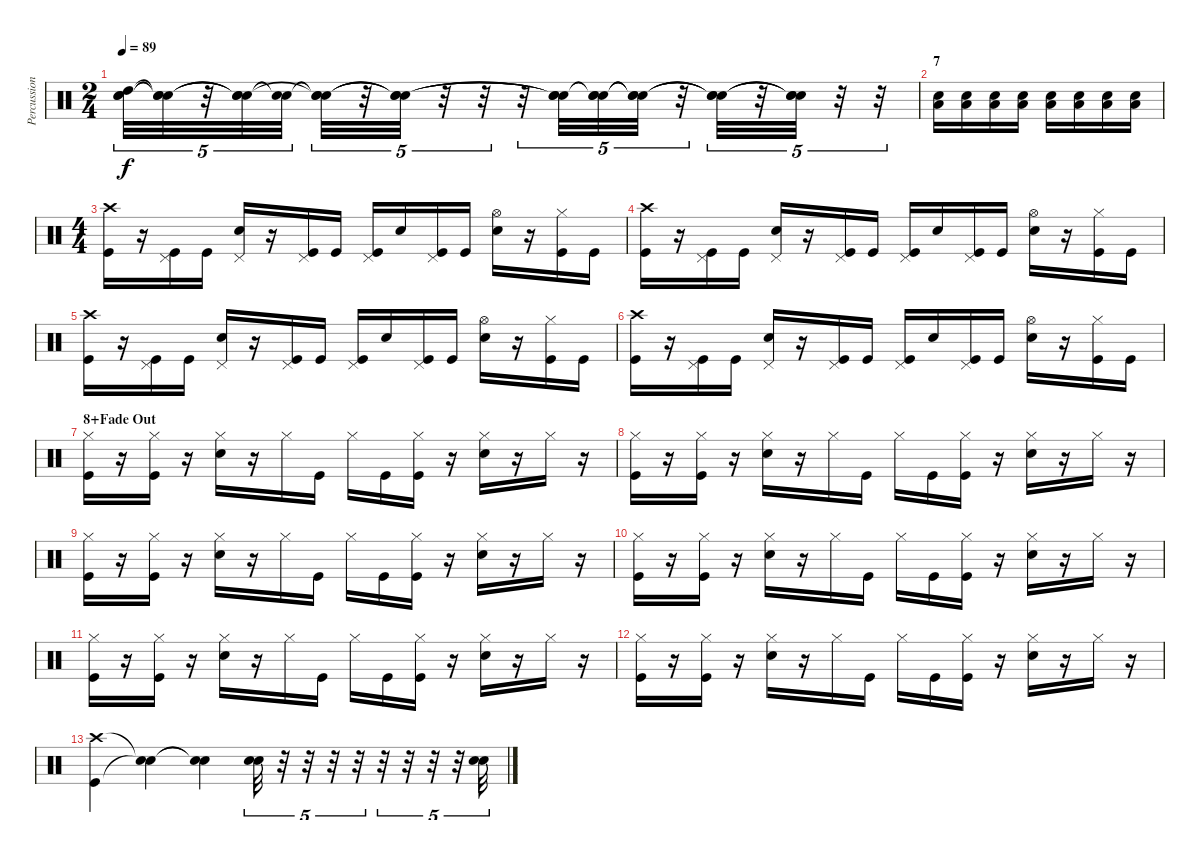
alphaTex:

\track ("Percussions" "Percussion") {instrument percussion}
\staff {score}
\articulation defaults
\ts (2 4)
\tempo 89
\clef neutral
\ks c
("Snare (hit) 2" "High Tom (hit)" "Electric Snare (hit)").32{tu (5 4) dy f} ("Snare (hit)"{t} "Snare (hit)"{t} "Snare (hit)"{t}).32{tu (5 4)} r.32{tu (5 4)} ("Snare (hit)"{t} "Snare (hit)"{t} "Snare (hit)"{t}).32{tu (5 4)} ("Snare (hit)"{t} "Snare (hit)"{t}).32{tu (5 4)} ("Snare (hit)"{t} "Snare (hit)"{t} "Snare (hit)"{t}).32{tu (5 4)} r.32{tu (5 4)} ("Snare (hit)"{t} "Snare (hit)"{t} "Snare (hit)"{t}).32{tu (5 4)} r.32{tu (5 4)} r.32{tu (5 4)} r.32{tu (5 4)} ("Snare (hit)"{t} "Snare (hit)"{t} "Snare (hit)"{t}).32{tu (5 4)} ("Snare (hit)"{t} "Snare (hit)"{t} "Electric Snare (hit)").32{tu (5 4)} ("Snare (hit)"{t} "Snare (hit)"{t} "Snare (hit)"{t}).32{tu (5 4)} r.32{tu (5 4)} ("Snare (hit)"{t} "Snare (hit)"{t} "Snare (hit)"{t}).32{tu (5 4)} r.32{tu (5 4)} ("Snare (hit)"{t} "Snare (hit)"{t} "Snare (hit)"{t}).32{tu (5 4)} r.32{tu (5 4)} r.32{tu (5 4)} |
\section ("" "7")
("Low Floor Tom (hit)" "Electric Snare (hit)").16 ("Low Floor Tom (hit)" "Electric Snare (hit)").16 ("Low Floor Tom (hit)" "Electric Snare (hit)").16 ("Low Floor Tom (hit)" "Electric Snare (hit)").16 ("Low Floor Tom (hit)" "Electric Snare (hit)").16 ("Low Floor Tom (hit)" "Electric Snare (hit)").16 ("Low Floor Tom (hit)" "Electric Snare (hit)").16 ("Low Floor Tom (hit)" "Electric Snare (hit)").16 |
\ts (4 4)
("Crash high (hit)" "Kick (hit)").16 r.16 ("Pedal Hi-Hat (hit)" "Kick (hit)").16 "Kick (hit)".16 ("Pedal Hi-Hat (hit)" "Electric Snare (hit)").16 r.16 ("Pedal Hi-Hat (hit)" "Kick (hit)").16 "Kick (hit)".16 ("Pedal Hi-Hat (hit)" "Kick (hit)").16 "Electric Snare (hit)".16 ("Pedal Hi-Hat (hit)" "Kick (hit)").16 "Kick (hit)".16 ("Hi-Hat (open)" "Electric Snare (hit)").16 r.16 ("Hi-Hat (closed)" "Kick (hit)").16 "Kick (hit)".16 |
("Crash high (hit)" "Kick (hit)").16 r.16 ("Pedal Hi-Hat (hit)" "Kick (hit)").16 "Kick (hit)".16 ("Pedal Hi-Hat (hit)" "Electric Snare (hit)").16 r.16 ("Pedal Hi-Hat (hit)" "Kick (hit)").16 "Kick (hit)".16 ("Pedal Hi-Hat (hit)" "Kick (hit)").16 "Electric Snare (hit)".16 ("Pedal Hi-Hat (hit)" "Kick (hit)").16 "Kick (hit)".16 ("Hi-Hat (open)" "Electric Snare (hit)").16 r.16 ("Hi-Hat (closed)" "Kick (hit)").16 "Kick (hit)".16 |
("Crash high (hit)" "Kick (hit)").16 r.16 ("Pedal Hi-Hat (hit)" "Kick (hit)").16 "Kick (hit)".16 ("Pedal Hi-Hat (hit)" "Electric Snare (hit)").16 r.16 ("Pedal Hi-Hat (hit)" "Kick (hit)").16 "Kick (hit)".16 ("Pedal Hi-Hat (hit)" "Kick (hit)").16 "Electric Snare (hit)".16 ("Pedal Hi-Hat (hit)" "Kick (hit)").16 "Kick (hit)".16 ("Hi-Hat (open)" "Electric Snare (hit)").16 r.16 ("Hi-Hat (closed)" "Kick (hit)").16 "Kick (hit)".16 |
("Crash high (hit)" "Kick (hit)").16 r.16 ("Pedal Hi-Hat (hit)" "Kick (hit)").16 "Kick (hit)".16 ("Pedal Hi-Hat (hit)" "Electric Snare (hit)").16 r.16 ("Pedal Hi-Hat (hit)" "Kick (hit)").16 "Kick (hit)".16 ("Pedal Hi-Hat (hit)" "Kick (hit)").16 "Electric Snare (hit)".16 ("Pedal Hi-Hat (hit)" "Kick (hit)").16 "Kick (hit)".16 ("Hi-Hat (open)" "Electric Snare (hit)").16 r.16 ("Hi-Hat (closed)" "Kick (hit)").16 "Kick (hit)".16 |
\section ("" "8+Fade Out")
("Hi-Hat (closed)" "Kick (hit)").16 r.16 ("Hi-Hat (closed)" "Kick (hit)").16 r.16 ("Hi-Hat (closed)" "Electric Snare (hit)").16 r.16 "Hi-Hat (closed)".16 "Kick (hit)".16 "Hi-Hat (closed)".16 "Kick (hit)".16 ("Hi-Hat (closed)" "Kick (hit)").16 r.16 ("Hi-Hat (closed)" "Electric Snare (hit)").16 r.16 "Hi-Hat (closed)".16 r.16 |
("Hi-Hat (closed)" "Kick (hit)").16 r.16 ("Hi-Hat (closed)" "Kick (hit)").16 r.16 ("Hi-Hat (closed)" "Electric Snare (hit)").16 r.16 "Hi-Hat (closed)".16 "Kick (hit)".16 "Hi-Hat (closed)".16 "Kick (hit)".16 ("Hi-Hat (closed)" "Kick (hit)").16 r.16 ("Hi-Hat (closed)" "Electric Snare (hit)").16 r.16 "Hi-Hat (closed)".16 r.16 |
("Hi-Hat (closed)" "Kick (hit)").16 r.16 ("Hi-Hat (closed)" "Kick (hit)").16 r.16 ("Hi-Hat (closed)" "Electric Snare (hit)").16 r.16 "Hi-Hat (closed)".16 "Kick (hit)".16 "Hi-Hat (closed)".16 "Kick (hit)".16 ("Hi-Hat (closed)" "Kick (hit)").16 r.16 ("Hi-Hat (closed)" "Electric Snare (hit)").16 r.16 "Hi-Hat (closed)".16 r.16 |
("Hi-Hat (closed)" "Kick (hit)").16 r.16 ("Hi-Hat (closed)" "Kick (hit)").16 r.16 ("Hi-Hat (closed)" "Electric Snare (hit)").16 r.16 "Hi-Hat (closed)".16 "Kick (hit)".16 "Hi-Hat (closed)".16 "Kick (hit)".16 ("Hi-Hat (closed)" "Kick (hit)").16 r.16 ("Hi-Hat (closed)" "Electric Snare (hit)").16 r.16 "Hi-Hat (closed)".16 r.16 |
("Hi-Hat (closed)" "Kick (hit)").16 r.16 ("Hi-Hat (closed)" "Kick (hit)").16 r.16 ("Hi-Hat (closed)" "Electric Snare (hit)").16 r.16 "Hi-Hat (closed)".16 "Kick (hit)".16 "Hi-Hat (closed)".16 "Kick (hit)".16 ("Hi-Hat (closed)" "Kick (hit)").16 r.16 ("Hi-Hat (closed)" "Electric Snare (hit)").16 r.16 "Hi-Hat (closed)".16 r.16 |
("Hi-Hat (closed)" "Kick (hit)").16 r.16 ("Hi-Hat (closed)" "Kick (hit)").16 r.16 ("Hi-Hat (closed)" "Electric Snare (hit)").16 r.16 "Hi-Hat (closed)".16 "Kick (hit)".16 "Hi-Hat (closed)".16 "Kick (hit)".16 ("Hi-Hat (closed)" "Kick (hit)").16 r.16 ("Hi-Hat (closed)" "Electric Snare (hit)").16 r.16 "Hi-Hat (closed)".16 r.16 |
("Crash high (hit)" "Kick (hit)").4 ("Snare (hit)"{t} "Snare (hit)"{t}).4 ("Snare (hit)"{t} "Snare (hit)"{t}).4 ("Snare (hit) 2" "Electric Snare (hit)").32{tu (5 4) bd 60} r.32{tu (5 4)} r.32{tu (5 4)} r.32{tu (5 4)} r.32{tu (5 4)} r.32{tu (5 4)} r.32{tu (5 4)} r.32{tu (5 4)} r.32{tu (5 4)} ("Electric Snare (hit)" "Snare (hit) 2").32{tu (5 4) bu 240}
